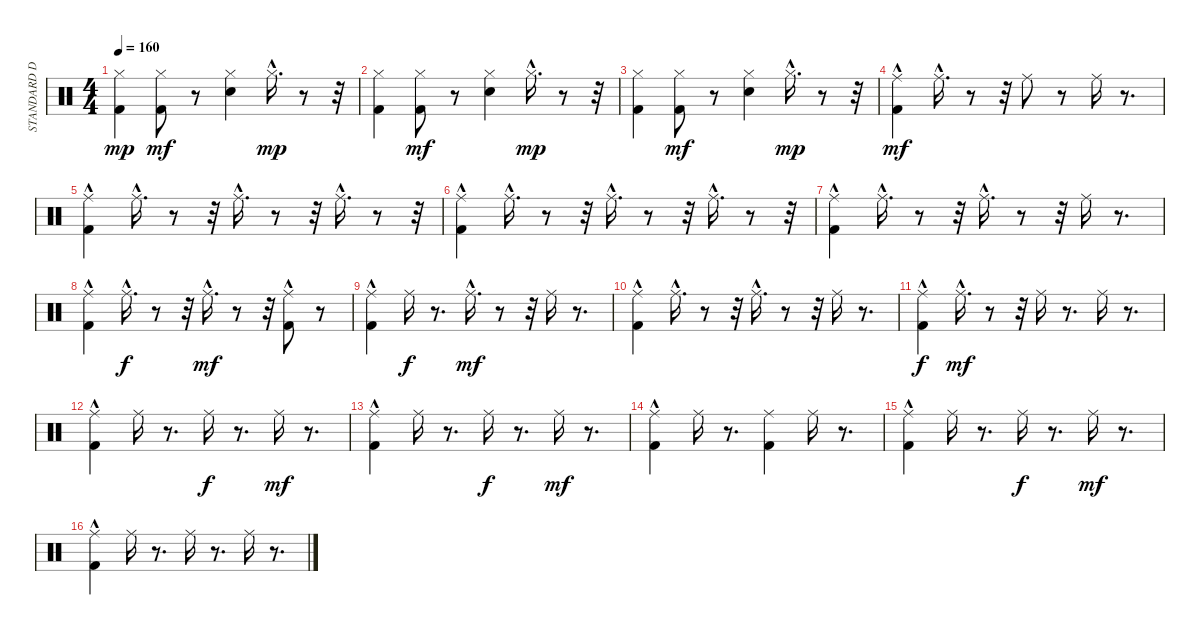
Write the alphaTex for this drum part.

\track ("STANDARD DRUMS" "STANDARD D") {instrument percussion}
\staff {score}
\articulation defaults
\ts (4 4)
\tempo 160
\clef neutral
\ks c
("Hi-Hat (closed)" "Kick (hit) 2").4{dy mp} ("Hi-Hat (closed)" "Kick (hit) 2").8{dy mf} r.8 ("Hi-Hat (closed)" "Electric Snare (hit)").4 "Hi-Hat (closed)"{hac}.16{d dy mp} r.8 r.32 |
("Hi-Hat (closed)" "Kick (hit) 2").4 ("Hi-Hat (closed)" "Kick (hit) 2").8{dy mf} r.8 ("Hi-Hat (closed)" "Electric Snare (hit)").4 "Hi-Hat (closed)"{hac}.16{d dy mp} r.8 r.32 |
("Hi-Hat (closed)" "Kick (hit) 2").4 ("Hi-Hat (closed)" "Kick (hit) 2").8{dy mf} r.8 ("Hi-Hat (closed)" "Electric Snare (hit)").4 "Hi-Hat (closed)"{hac}.16{d dy mp} r.8 r.32 |
("Ride (middle)"{hac} "Kick (hit) 2"{hac}).4{dy mf} "Ride (middle)"{hac}.16{d} r.8 r.32 "Ride (middle)".8 r.8 "Ride (middle)".16 r.8{d} |
("Kick (hit) 2"{hac} "Ride (middle)").4 "Ride (middle)"{hac}.16{d} r.8 r.32 "Ride (middle)"{hac}.16{d} r.8 r.32 "Ride (middle)"{hac}.16{d} r.8 r.32 |
("Kick (hit) 2"{hac} "Ride (middle)"{hac}).4 "Ride (middle)"{hac}.16{d} r.8 r.32 "Ride (middle)"{hac}.16{d} r.8 r.32 "Ride (middle)"{hac}.16{d} r.8 r.32 |
("Kick (hit) 2"{hac} "Ride (middle)"{hac}).4 "Ride (middle)"{hac}.16{d} r.8 r.32 "Ride (middle)"{hac}.16{d} r.8 r.32 "Ride (middle)".16 r.8{d} |
("Kick (hit) 2" "Ride (middle)"{hac}).4 "Ride (middle)"{hac}.16{d dy f} r.8 r.32 "Ride (middle)"{hac}.16{d dy mf} r.8 r.32 ("Ride (middle)"{hac} "Kick (hit) 2").8 r.8 |
("Kick (hit) 2"{hac} "Ride (middle)"{hac}).4 "Ride (middle)".16{dy f} r.8{d} "Ride (middle)"{hac}.16{d dy mf} r.8 r.32 "Ride (middle)".16 r.8{d} |
("Kick (hit) 2"{hac} "Ride (middle)"{hac}).4 "Ride (middle)"{hac}.16{d} r.8 r.32 "Ride (middle)"{hac}.16{d} r.8 r.32 "Ride (middle)".16 r.8{d} |
("Ride (middle)"{hac} "Kick (hit) 2"{hac}).4{dy f} "Ride (middle)"{hac}.16{d dy mf} r.8 r.32 "Ride (middle)".16 r.8{d} "Ride (middle)".16 r.8{d} |
("Kick (hit) 2"{hac} "Ride (middle)"{hac}).4 "Ride (middle)".16 r.8{d} "Ride (middle)".16{dy f} r.8{d} "Ride (middle)".16{dy mf} r.8{d} |
("Kick (hit) 2"{hac} "Ride (middle)"{hac}).4 "Ride (middle)".16 r.8{d} "Ride (middle)".16{dy f} r.8{d} "Ride (middle)".16{dy mf} r.8{d} |
("Kick (hit) 2" "Ride (middle)"{hac}).4 "Ride (middle)".16 r.8{d} ("Kick (hit) 2" "Ride (middle)").4 "Ride (middle)".16 r.8{d} |
("Kick (hit) 2"{hac} "Ride (middle)").4 "Ride (middle)".16 r.8{d} "Ride (middle)".16{dy f} r.8{d} "Ride (middle)".16{dy mf} r.8{d} |
("Kick (hit) 2"{hac} "Ride (middle)").4 "Ride (middle)".16 r.8{d} "Ride (middle)".16 r.8{d} "Ride (middle)".16 r.8{d}
